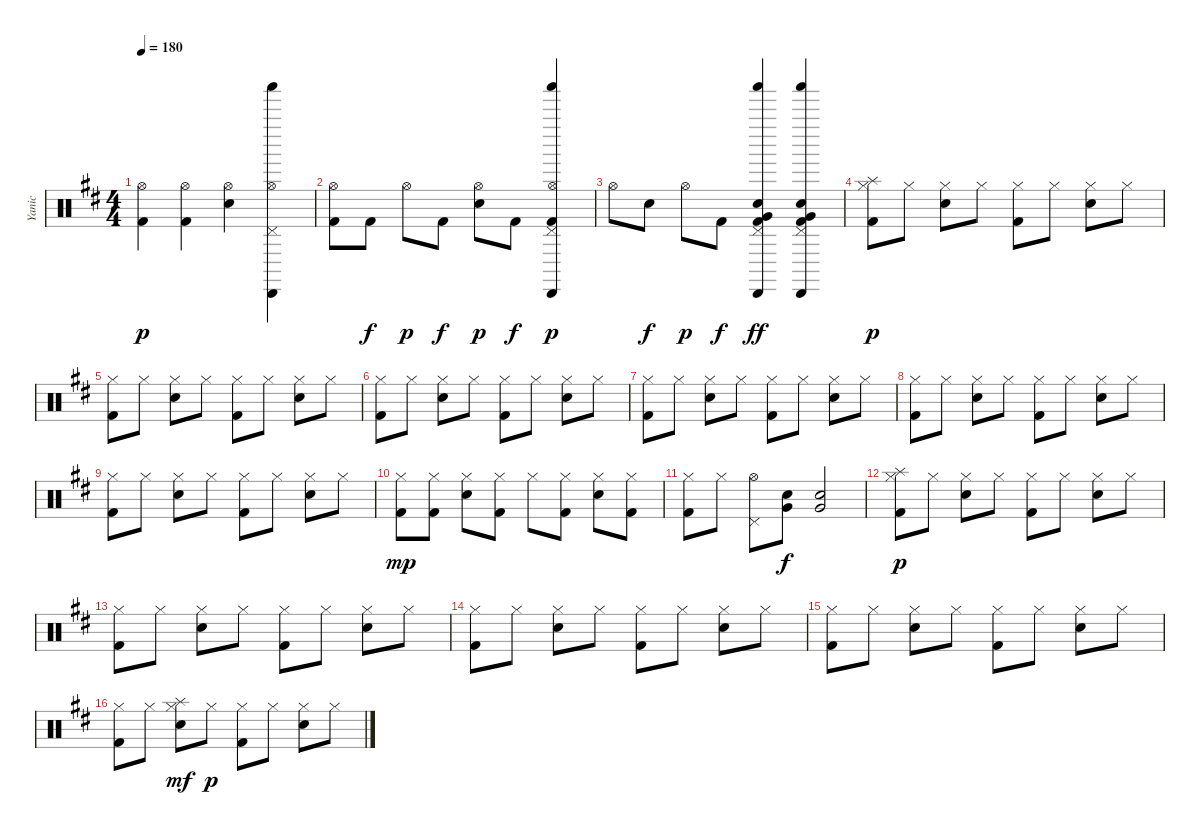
\track ("Yanic" "Yanic") {instrument percussion}
\staff {score}
\articulation defaults
\ts (4 4)
\tempo 180
\clef neutral
\ks d
("Kick (hit) 2" "Hi-Hat (open)").4{dy p} ("Kick (hit) 2" "Hi-Hat (open)").4 ("Electric Snare (hit)" "Hi-Hat (open)").4 ("Cabasa (hit)" "Shaker (hit)" "Pedal Hi-Hat (hit)" "Hi-Hat (open)").4 |
("Kick (hit) 2" "Hi-Hat (open)").8 "Kick (hit) 2".8{dy f} "Hi-Hat (open)".8{dy p} "Kick (hit) 2".8{dy f} ("Electric Snare (hit)" "Hi-Hat (open)").8{dy p} "Kick (hit) 2".8{dy f} ("Kick (hit) 2" "Hi-Hat (open)" "Cabasa (hit)" "Shaker (hit)" "Pedal Hi-Hat (hit)").4{dy p} |
"Hi-Hat (open)".8 "Electric Snare (hit)".8{dy f} "Hi-Hat (open)".8{dy p} "Kick (hit) 2".8{dy f} ("Electric Snare (hit)" "Very Low Tom (hit)" "Kick (hit) 2" "Cabasa (hit)" "Shaker (hit)" "Pedal Hi-Hat (hit)").4{dy ff} ("Electric Snare (hit)" "Very Low Tom (hit)" "Kick (hit) 2" "Cabasa (hit)" "Shaker (hit)" "Pedal Hi-Hat (hit)").4 |
("Kick (hit) 2" "Hi-Hat (closed)" "Splash (hit)").8{dy p} "Hi-Hat (closed)".8 ("Electric Snare (hit)" "Hi-Hat (closed)").8 "Hi-Hat (closed)".8 ("Kick (hit) 2" "Hi-Hat (closed)").8 "Hi-Hat (closed)".8 ("Electric Snare (hit)" "Hi-Hat (closed)").8 "Hi-Hat (closed)".8 |
("Kick (hit) 2" "Hi-Hat (closed)").8 "Hi-Hat (closed)".8 ("Electric Snare (hit)" "Hi-Hat (closed)").8 "Hi-Hat (closed)".8 ("Kick (hit) 2" "Hi-Hat (closed)").8 "Hi-Hat (closed)".8 ("Electric Snare (hit)" "Hi-Hat (closed)").8 "Hi-Hat (closed)".8 |
("Kick (hit) 2" "Hi-Hat (closed)").8 "Hi-Hat (closed)".8 ("Electric Snare (hit)" "Hi-Hat (closed)").8 "Hi-Hat (closed)".8 ("Kick (hit) 2" "Hi-Hat (closed)").8 "Hi-Hat (closed)".8 ("Electric Snare (hit)" "Hi-Hat (closed)").8 "Hi-Hat (closed)".8 |
("Kick (hit) 2" "Hi-Hat (closed)").8 "Hi-Hat (closed)".8 ("Electric Snare (hit)" "Hi-Hat (closed)").8 "Hi-Hat (closed)".8 ("Kick (hit) 2" "Hi-Hat (closed)").8 "Hi-Hat (closed)".8 ("Electric Snare (hit)" "Hi-Hat (closed)").8 "Hi-Hat (closed)".8 |
("Kick (hit) 2" "Hi-Hat (closed)").8 "Hi-Hat (closed)".8 ("Electric Snare (hit)" "Hi-Hat (closed)").8 "Hi-Hat (closed)".8 ("Kick (hit) 2" "Hi-Hat (closed)").8 "Hi-Hat (closed)".8 ("Electric Snare (hit)" "Hi-Hat (closed)").8 "Hi-Hat (closed)".8 |
("Kick (hit) 2" "Hi-Hat (closed)").8 "Hi-Hat (closed)".8 ("Electric Snare (hit)" "Hi-Hat (closed)").8 "Hi-Hat (closed)".8 ("Kick (hit) 2" "Hi-Hat (closed)").8 "Hi-Hat (closed)".8 ("Electric Snare (hit)" "Hi-Hat (closed)").8 "Hi-Hat (closed)".8 |
("Kick (hit) 2" "Hi-Hat (closed)").8{dy mp} ("Kick (hit) 2" "Hi-Hat (closed)").8 ("Electric Snare (hit)" "Hi-Hat (closed)").8 ("Kick (hit) 2" "Hi-Hat (closed)").8 "Hi-Hat (closed)".8 ("Kick (hit) 2" "Hi-Hat (closed)").8 ("Electric Snare (hit)" "Hi-Hat (closed)").8 ("Kick (hit) 2" "Hi-Hat (closed)").8 |
("Kick (hit) 2" "Hi-Hat (closed)").8 "Hi-Hat (closed)".8 ("Hi-Hat (open)" "Pedal Hi-Hat (hit)").8 ("Electric Snare (hit)" "Very Low Tom (hit)").8{dy f} ("Electric Snare (hit)" "Very Low Tom (hit)").2 |
("Kick (hit) 2" "Hi-Hat (closed)" "Splash (hit)").8{dy p} "Hi-Hat (closed)".8 ("Electric Snare (hit)" "Hi-Hat (closed)").8 "Hi-Hat (closed)".8 ("Kick (hit) 2" "Hi-Hat (closed)").8 "Hi-Hat (closed)".8 ("Electric Snare (hit)" "Hi-Hat (closed)").8 "Hi-Hat (closed)".8 |
("Kick (hit) 2" "Hi-Hat (closed)").8 "Hi-Hat (closed)".8 ("Electric Snare (hit)" "Hi-Hat (closed)").8 "Hi-Hat (closed)".8 ("Kick (hit) 2" "Hi-Hat (closed)").8 "Hi-Hat (closed)".8 ("Electric Snare (hit)" "Hi-Hat (closed)").8 "Hi-Hat (closed)".8 |
("Kick (hit) 2" "Hi-Hat (closed)").8 "Hi-Hat (closed)".8 ("Electric Snare (hit)" "Hi-Hat (closed)").8 "Hi-Hat (closed)".8 ("Kick (hit) 2" "Hi-Hat (closed)").8 "Hi-Hat (closed)".8 ("Electric Snare (hit)" "Hi-Hat (closed)").8 "Hi-Hat (closed)".8 |
("Kick (hit) 2" "Hi-Hat (closed)").8 "Hi-Hat (closed)".8 ("Electric Snare (hit)" "Hi-Hat (closed)").8 "Hi-Hat (closed)".8 ("Kick (hit) 2" "Hi-Hat (closed)").8 "Hi-Hat (closed)".8 ("Electric Snare (hit)" "Hi-Hat (closed)").8 "Hi-Hat (closed)".8 |
("Kick (hit) 2" "Hi-Hat (closed)").8 "Hi-Hat (closed)".8 ("Electric Snare (hit)" "Hi-Hat (closed)" "Splash (hit)").8{dy mf} "Hi-Hat (closed)".8{dy p} ("Kick (hit) 2" "Hi-Hat (closed)").8 "Hi-Hat (closed)".8 ("Electric Snare (hit)" "Hi-Hat (closed)").8 "Hi-Hat (closed)".8
